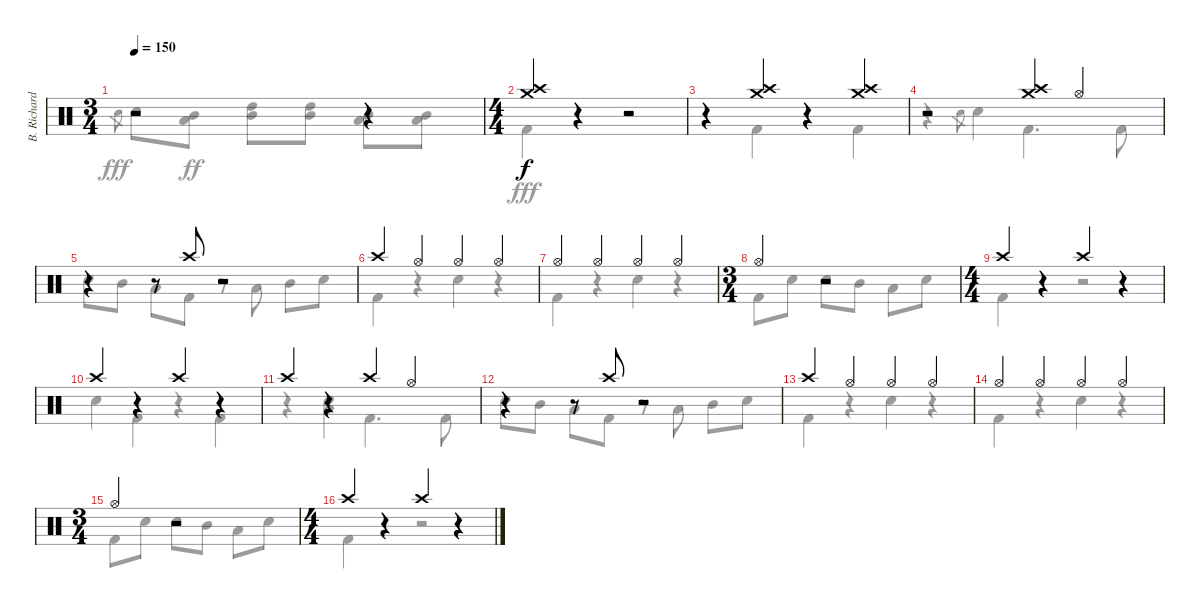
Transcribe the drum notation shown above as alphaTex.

\track ("B. Richardson Drums" "B. Richard") {instrument percussion}
\staff {score}
\articulation defaults
\voice
\ts (3 4)
\tempo 150
\clef neutral
\ks c
r.2{dy mf} r.4 |
\ts (4 4)
("Crash high (hit)" "Crash medium (hit)").4{dy f} r.4 r.2 |
r.4 ("Crash high (hit)" "Crash medium (hit)").4 r.4 ("Crash high (hit)" "Crash medium (hit)").4 |
r.2 ("Crash high (hit)" "Crash medium (hit)").4 "Hi-Hat (open)".4 |
r.4 r.8 "Crash high (hit)".8 r.2 |
"Crash high (hit)".4 "Hi-Hat (open)".4 "Hi-Hat (open)".4 "Hi-Hat (open)".4 |
"Hi-Hat (open)".4 "Hi-Hat (open)".4 "Hi-Hat (open)".4 "Hi-Hat (open)".4 |
\ts (3 4)
"Hi-Hat (open)".4 r.2 |
\ts (4 4)
"Crash high (hit)".4 r.4 "Crash high (hit)".4 r.4 |
"Crash high (hit)".4 r.4 "Crash high (hit)".4 r.4 |
"Crash high (hit)".4 r.4 "Crash high (hit)".4 "Hi-Hat (open)".4 |
r.4 r.8 "Crash high (hit)".8 r.2 |
"Crash high (hit)".4 "Hi-Hat (open)".4 "Hi-Hat (open)".4 "Hi-Hat (open)".4 |
"Hi-Hat (open)".4 "Hi-Hat (open)".4 "Hi-Hat (open)".4 "Hi-Hat (open)".4 |
\ts (3 4)
"Hi-Hat (open)".4 r.2 |
\ts (4 4)
"Crash high (hit)".4 r.4 "Crash high (hit)".4 r.4
\voice
\clef neutral
\ottava regular
\simile none
\ks c "Electric Snare (hit)".8{gr dy fff} "Electric Snare (hit)".8
("Mid Tom (hit)" "Low Tom (hit)").8{dy ff} ("High Tom (hit)" "Mid Tom (hit)").8 ("High Tom (hit)" "Mid Tom (hit)").8 ("Mid Tom (hit)" "Low Tom (hit)").8 ("Mid Tom (hit)" "Low Tom (hit)").8 |
"Kick (hit) 2".4{dy fff} r.4 r.2 |
r.4 "Kick (hit) 2".4 r.4 "Kick (hit) 2".4 |
r.4 "Electric Snare (hit)".8{gr} "Electric Snare (hit)".4 "Kick (hit) 2".4{d} "Kick (hit) 2".8 |
"Electric Snare (hit)".8 "Mid Tom (hit)".8 "Low Tom (hit)".8 "Kick (hit) 2".8 r.8 "Low Tom (hit)".8 "Mid Tom (hit)".8 "Electric Snare (hit)".8 |
"Kick (hit) 2".4 r.4 "Electric Snare (hit)".4 r.4 |
"Kick (hit) 2".4 r.4 "Electric Snare (hit)".4 r.4 |
"Kick (hit) 2".8 "Electric Snare (hit)".8 "Electric Snare (hit)".8 "Mid Tom (hit)".8 "Low Tom (hit)".8 "Electric Snare (hit)".8 |
"Kick (hit) 2".4 r.4 r.2 |
"Electric Snare (hit)".4 "Kick (hit) 2".4 r.4 "Kick (hit) 2".4 |
r.4 ("Electric Snare (hit)" "Low Tom (hit)").4 "Kick (hit) 2".4{d} "Kick (hit) 2".8 |
"Electric Snare (hit)".8 "Mid Tom (hit)".8 "Low Tom (hit)".8 "Kick (hit) 2".8 r.8 "Low Tom (hit)".8 "Mid Tom (hit)".8 "Electric Snare (hit)".8 |
"Kick (hit) 2".4 r.4 "Electric Snare (hit)".4 r.4 |
"Kick (hit) 2".4 r.4 "Electric Snare (hit)".4 r.4 |
"Kick (hit) 2".8 "Electric Snare (hit)".8 "Electric Snare (hit)".8 "Mid Tom (hit)".8 "Low Tom (hit)".8 "Electric Snare (hit)".8 |
"Kick (hit) 2".4 r.4 r.2
